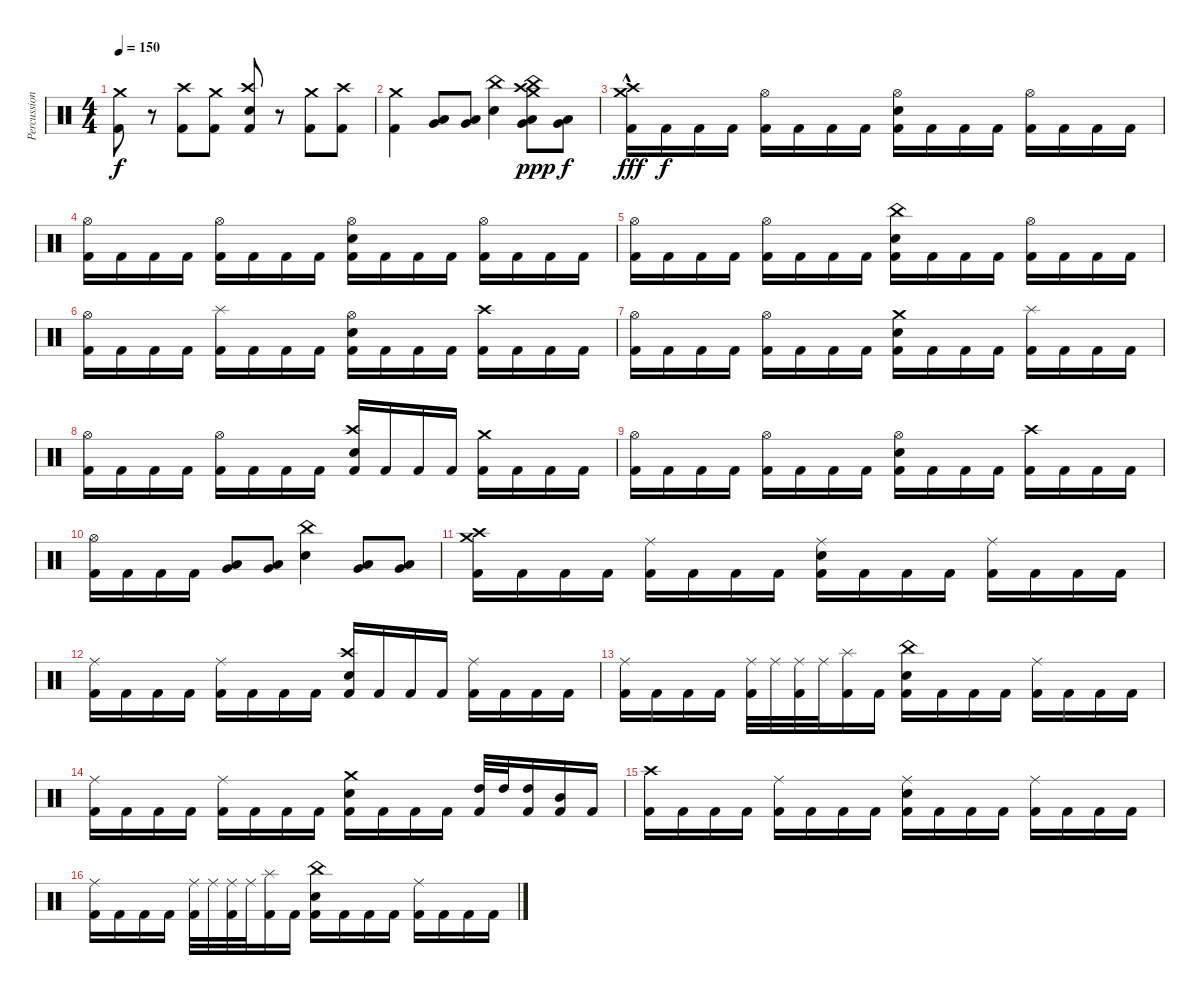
\track ("Percussion" "Percussion") {instrument percussion}
\staff {score}
\articulation defaults
\ts (4 4)
\tempo 150
\clef neutral
\ks c
("Crash medium (hit)" "Kick (hit) 2").8{dy f} r.8 ("Crash high (hit)" "Kick (hit) 2").8 ("Crash medium (hit)" "Kick (hit) 2").8 ("Crash high (hit)" "Electric Snare (hit)" "Kick (hit) 2").8 r.8 ("Crash medium (hit)" "Kick (hit) 2").8 ("Crash high (hit)" "Kick (hit) 2").8 |
("Crash medium (hit)" "Kick (hit) 2").4 ("Very Low Tom (hit)" "Low Tom (hit)").8 ("Very Low Tom (hit)" "Low Tom (hit)").8 ("China (hit)" "Electric Snare (hit)").4 ("China (hit)" "Crash medium (hit)" "Crash high (hit)" "Very Low Tom (hit)" "Low Tom (hit)").8{dy ppp} ("Very Low Tom (hit)" "Low Tom (hit)").8{dy f} |
("Crash medium (hit)"{hac} "Crash high (hit)"{hac} "Kick (hit) 2"{hac}).16{dy fff} "Kick (hit) 2".16{dy f} "Kick (hit) 2".16 "Kick (hit) 2".16 ("Hi-Hat (open)" "Kick (hit) 2").16 "Kick (hit) 2".16 "Kick (hit) 2".16 "Kick (hit) 2".16 ("Hi-Hat (open)" "Electric Snare (hit)" "Kick (hit) 2").16 "Kick (hit) 2".16 "Kick (hit) 2".16 "Kick (hit) 2".16 ("Hi-Hat (open)" "Kick (hit) 2").16 "Kick (hit) 2".16 "Kick (hit) 2".16 "Kick (hit) 2".16 |
("Hi-Hat (open)" "Kick (hit) 2").16 "Kick (hit) 2".16 "Kick (hit) 2".16 "Kick (hit) 2".16 ("Hi-Hat (open)" "Kick (hit) 2").16 "Kick (hit) 2".16 "Kick (hit) 2".16 "Kick (hit) 2".16 ("Hi-Hat (open)" "Electric Snare (hit)" "Kick (hit) 2").16 "Kick (hit) 2".16 "Kick (hit) 2".16 "Kick (hit) 2".16 ("Hi-Hat (open)" "Kick (hit) 2").16 "Kick (hit) 2".16 "Kick (hit) 2".16 "Kick (hit) 2".16 |
("Hi-Hat (open)" "Kick (hit) 2").16 "Kick (hit) 2".16 "Kick (hit) 2".16 "Kick (hit) 2".16 ("Hi-Hat (open)" "Kick (hit) 2").16 "Kick (hit) 2".16 "Kick (hit) 2".16 "Kick (hit) 2".16 ("China (hit)" "Electric Snare (hit)" "Kick (hit) 2").16 "Kick (hit) 2".16 "Kick (hit) 2".16 "Kick (hit) 2".16 ("Hi-Hat (open)" "Kick (hit) 2").16 "Kick (hit) 2".16 "Kick (hit) 2".16 "Kick (hit) 2".16 |
("Hi-Hat (open)" "Kick (hit) 2").16 "Kick (hit) 2".16 "Kick (hit) 2".16 "Kick (hit) 2".16 ("Splash (hit)" "Kick (hit) 2").16 "Kick (hit) 2".16 "Kick (hit) 2".16 "Kick (hit) 2".16 ("Hi-Hat (open)" "Electric Snare (hit)" "Kick (hit) 2").16 "Kick (hit) 2".16 "Kick (hit) 2".16 "Kick (hit) 2".16 ("Crash high (hit)" "Kick (hit) 2").16 "Kick (hit) 2".16 "Kick (hit) 2".16 "Kick (hit) 2".16 |
("Hi-Hat (open)" "Kick (hit) 2").16 "Kick (hit) 2".16 "Kick (hit) 2".16 "Kick (hit) 2".16 ("Hi-Hat (open)" "Kick (hit) 2").16 "Kick (hit) 2".16 "Kick (hit) 2".16 "Kick (hit) 2".16 ("Crash medium (hit)" "Electric Snare (hit)" "Kick (hit) 2").16 "Kick (hit) 2".16 "Kick (hit) 2".16 "Kick (hit) 2".16 ("Splash (hit)" "Kick (hit) 2").16 "Kick (hit) 2".16 "Kick (hit) 2".16 "Kick (hit) 2".16 |
("Hi-Hat (open)" "Kick (hit) 2").16 "Kick (hit) 2".16 "Kick (hit) 2".16 "Kick (hit) 2".16 ("Hi-Hat (open)" "Kick (hit) 2").16 "Kick (hit) 2".16 "Kick (hit) 2".16 "Kick (hit) 2".16 ("Crash high (hit)" "Electric Snare (hit)" "Kick (hit) 2").16 "Kick (hit) 2".16 "Kick (hit) 2".16 "Kick (hit) 2".16 ("Crash medium (hit)" "Kick (hit) 2").16 "Kick (hit) 2".16 "Kick (hit) 2".16 "Kick (hit) 2".16 |
("Hi-Hat (open)" "Kick (hit) 2").16 "Kick (hit) 2".16 "Kick (hit) 2".16 "Kick (hit) 2".16 ("Hi-Hat (open)" "Kick (hit) 2").16 "Kick (hit) 2".16 "Kick (hit) 2".16 "Kick (hit) 2".16 ("Hi-Hat (open)" "Electric Snare (hit)" "Kick (hit) 2").16 "Kick (hit) 2".16 "Kick (hit) 2".16 "Kick (hit) 2".16 ("Crash high (hit)" "Kick (hit) 2").16 "Kick (hit) 2".16 "Kick (hit) 2".16 "Kick (hit) 2".16 |
("Hi-Hat (open)" "Kick (hit) 2").16 "Kick (hit) 2".16 "Kick (hit) 2".16 "Kick (hit) 2".16 ("Very Low Tom (hit)" "Low Tom (hit)").8 ("Very Low Tom (hit)" "Low Tom (hit)").8 ("China (hit)" "Electric Snare (hit)").4 ("Very Low Tom (hit)" "Low Tom (hit)").8 ("Very Low Tom (hit)" "Low Tom (hit)").8 |
("Crash medium (hit)" "Crash high (hit)" "Kick (hit) 2").16 "Kick (hit) 2".16 "Kick (hit) 2".16 "Kick (hit) 2".16 ("Ride (middle)" "Kick (hit) 2").16 "Kick (hit) 2".16 "Kick (hit) 2".16 "Kick (hit) 2".16 ("Ride (middle)" "Electric Snare (hit)" "Kick (hit) 2").16 "Kick (hit) 2".16 "Kick (hit) 2".16 "Kick (hit) 2".16 ("Ride (middle)" "Kick (hit) 2").16 "Kick (hit) 2".16 "Kick (hit) 2".16 "Kick (hit) 2".16 |
("Ride (middle)" "Kick (hit) 2").16 "Kick (hit) 2".16 "Kick (hit) 2".16 "Kick (hit) 2".16 ("Ride (middle)" "Kick (hit) 2").16 "Kick (hit) 2".16 "Kick (hit) 2".16 "Kick (hit) 2".16 ("Crash high (hit)" "Electric Snare (hit)" "Kick (hit) 2").16 "Kick (hit) 2".16 "Kick (hit) 2".16 "Kick (hit) 2".16 ("Ride (middle)" "Kick (hit) 2").16 "Kick (hit) 2".16 "Kick (hit) 2".16 "Kick (hit) 2".16 |
("Ride (middle)" "Kick (hit) 2").16 "Kick (hit) 2".16 "Kick (hit) 2".16 "Kick (hit) 2".16 ("Ride (middle)" "Kick (hit) 2").32 "Ride (middle)".32 ("Ride (middle)" "Kick (hit) 2").32 "Ride (middle)".32 ("Splash (hit)" "Kick (hit) 2").16 "Kick (hit) 2".16 ("China (hit)" "Electric Snare (hit)" "Kick (hit) 2").16 "Kick (hit) 2".16 "Kick (hit) 2".16 "Kick (hit) 2".16 ("Ride (middle)" "Kick (hit) 2").16 "Kick (hit) 2".16 "Kick (hit) 2".16 "Kick (hit) 2".16 |
("Ride (middle)" "Kick (hit) 2").16 "Kick (hit) 2".16 "Kick (hit) 2".16 "Kick (hit) 2".16 ("Ride (middle)" "Kick (hit) 2").16 "Kick (hit) 2".16 "Kick (hit) 2".16 "Kick (hit) 2".16 ("Crash medium (hit)" "Electric Snare (hit)" "Kick (hit) 2").16 "Kick (hit) 2".16 "Kick (hit) 2".16 "Kick (hit) 2".16 ("High Tom (hit)" "Kick (hit) 2").32 "High Tom (hit)".32 ("High Tom (hit)" "Kick (hit) 2").16 ("Mid Tom (hit)" "Kick (hit) 2").16 "Kick (hit) 2".16 |
("Crash high (hit)" "Kick (hit) 2").16 "Kick (hit) 2".16 "Kick (hit) 2".16 "Kick (hit) 2".16 ("Ride (middle)" "Kick (hit) 2").16 "Kick (hit) 2".16 "Kick (hit) 2".16 "Kick (hit) 2".16 ("Ride (middle)" "Electric Snare (hit)" "Kick (hit) 2").16 "Kick (hit) 2".16 "Kick (hit) 2".16 "Kick (hit) 2".16 ("Ride (middle)" "Kick (hit) 2").16 "Kick (hit) 2".16 "Kick (hit) 2".16 "Kick (hit) 2".16 |
("Ride (middle)" "Kick (hit) 2").16 "Kick (hit) 2".16 "Kick (hit) 2".16 "Kick (hit) 2".16 ("Ride (middle)" "Kick (hit) 2").32 "Ride (middle)".32 ("Ride (middle)" "Kick (hit) 2").32 "Ride (middle)".32 ("Splash (hit)" "Kick (hit) 2").16 "Kick (hit) 2".16 ("China (hit)" "Electric Snare (hit)" "Kick (hit) 2").16 "Kick (hit) 2".16 "Kick (hit) 2".16 "Kick (hit) 2".16 ("Ride (middle)" "Kick (hit) 2").16 "Kick (hit) 2".16 "Kick (hit) 2".16 "Kick (hit) 2".16
